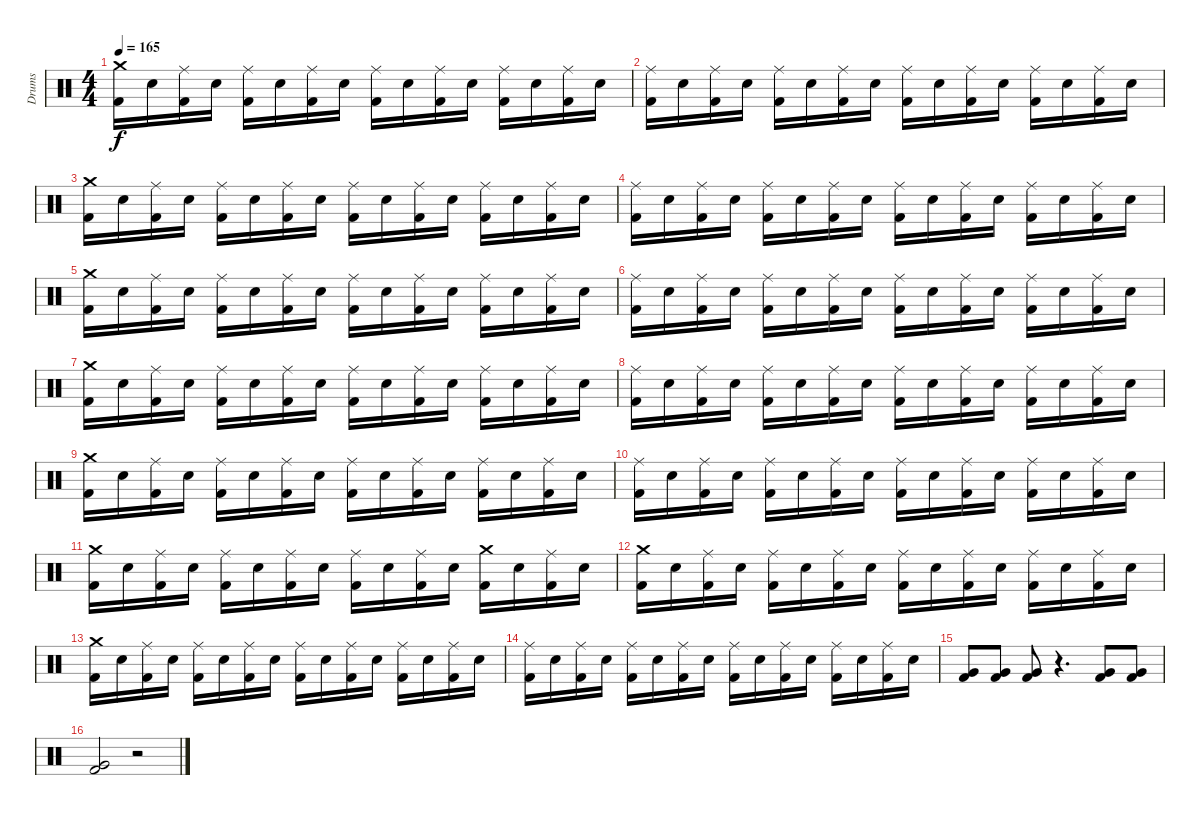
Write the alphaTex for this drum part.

\track ("Drums" "Drums") {instrument percussion}
\staff {score}
\articulation defaults
\ts (4 4)
\tempo 165
\clef neutral
\ks c
("Crash medium (hit)" "Kick (hit) 2").16{dy f} "Snare (hit) 2".16 ("Ride (middle)" "Kick (hit) 2").16 "Snare (hit) 2".16 ("Ride (middle)" "Kick (hit) 2").16 "Snare (hit) 2".16 ("Ride (middle)" "Kick (hit) 2").16 "Snare (hit) 2".16 ("Ride (middle)" "Kick (hit) 2").16 "Snare (hit) 2".16 ("Ride (middle)" "Kick (hit) 2").16 "Snare (hit) 2".16 ("Ride (middle)" "Kick (hit) 2").16 "Snare (hit) 2".16 ("Ride (middle)" "Kick (hit) 2").16 "Snare (hit) 2".16 |
("Ride (middle)" "Kick (hit) 2").16 "Snare (hit) 2".16 ("Ride (middle)" "Kick (hit) 2").16 "Snare (hit) 2".16 ("Ride (middle)" "Kick (hit) 2").16 "Snare (hit) 2".16 ("Ride (middle)" "Kick (hit) 2").16 "Snare (hit) 2".16 ("Ride (middle)" "Kick (hit) 2").16 "Snare (hit) 2".16 ("Ride (middle)" "Kick (hit) 2").16 "Snare (hit) 2".16 ("Ride (middle)" "Kick (hit) 2").16 "Snare (hit) 2".16 ("Ride (middle)" "Kick (hit) 2").16 "Snare (hit) 2".16 |
("Crash medium (hit)" "Kick (hit) 2").16 "Snare (hit) 2".16 ("Ride (middle)" "Kick (hit) 2").16 "Snare (hit) 2".16 ("Ride (middle)" "Kick (hit) 2").16 "Snare (hit) 2".16 ("Ride (middle)" "Kick (hit) 2").16 "Snare (hit) 2".16 ("Ride (middle)" "Kick (hit) 2").16 "Snare (hit) 2".16 ("Ride (middle)" "Kick (hit) 2").16 "Snare (hit) 2".16 ("Ride (middle)" "Kick (hit) 2").16 "Snare (hit) 2".16 ("Ride (middle)" "Kick (hit) 2").16 "Snare (hit) 2".16 |
("Ride (middle)" "Kick (hit) 2").16 "Snare (hit) 2".16 ("Ride (middle)" "Kick (hit) 2").16 "Snare (hit) 2".16 ("Ride (middle)" "Kick (hit) 2").16 "Snare (hit) 2".16 ("Ride (middle)" "Kick (hit) 2").16 "Snare (hit) 2".16 ("Ride (middle)" "Kick (hit) 2").16 "Snare (hit) 2".16 ("Ride (middle)" "Kick (hit) 2").16 "Snare (hit) 2".16 ("Ride (middle)" "Kick (hit) 2").16 "Snare (hit) 2".16 ("Ride (middle)" "Kick (hit) 2").16 "Snare (hit) 2".16 |
("Crash medium (hit)" "Kick (hit) 2").16 "Snare (hit) 2".16 ("Ride (middle)" "Kick (hit) 2").16 "Snare (hit) 2".16 ("Ride (middle)" "Kick (hit) 2").16 "Snare (hit) 2".16 ("Ride (middle)" "Kick (hit) 2").16 "Snare (hit) 2".16 ("Ride (middle)" "Kick (hit) 2").16 "Snare (hit) 2".16 ("Ride (middle)" "Kick (hit) 2").16 "Snare (hit) 2".16 ("Ride (middle)" "Kick (hit) 2").16 "Snare (hit) 2".16 ("Ride (middle)" "Kick (hit) 2").16 "Snare (hit) 2".16 |
("Ride (middle)" "Kick (hit) 2").16 "Snare (hit) 2".16 ("Ride (middle)" "Kick (hit) 2").16 "Snare (hit) 2".16 ("Ride (middle)" "Kick (hit) 2").16 "Snare (hit) 2".16 ("Ride (middle)" "Kick (hit) 2").16 "Snare (hit) 2".16 ("Ride (middle)" "Kick (hit) 2").16 "Snare (hit) 2".16 ("Ride (middle)" "Kick (hit) 2").16 "Snare (hit) 2".16 ("Ride (middle)" "Kick (hit) 2").16 "Snare (hit) 2".16 ("Ride (middle)" "Kick (hit) 2").16 "Snare (hit) 2".16 |
("Crash medium (hit)" "Kick (hit) 2").16 "Snare (hit) 2".16 ("Ride (middle)" "Kick (hit) 2").16 "Snare (hit) 2".16 ("Ride (middle)" "Kick (hit) 2").16 "Snare (hit) 2".16 ("Ride (middle)" "Kick (hit) 2").16 "Snare (hit) 2".16 ("Ride (middle)" "Kick (hit) 2").16 "Snare (hit) 2".16 ("Ride (middle)" "Kick (hit) 2").16 "Snare (hit) 2".16 ("Ride (middle)" "Kick (hit) 2").16 "Snare (hit) 2".16 ("Ride (middle)" "Kick (hit) 2").16 "Snare (hit) 2".16 |
("Ride (middle)" "Kick (hit) 2").16 "Snare (hit) 2".16 ("Ride (middle)" "Kick (hit) 2").16 "Snare (hit) 2".16 ("Ride (middle)" "Kick (hit) 2").16 "Snare (hit) 2".16 ("Ride (middle)" "Kick (hit) 2").16 "Snare (hit) 2".16 ("Ride (middle)" "Kick (hit) 2").16 "Snare (hit) 2".16 ("Ride (middle)" "Kick (hit) 2").16 "Snare (hit) 2".16 ("Ride (middle)" "Kick (hit) 2").16 "Snare (hit) 2".16 ("Ride (middle)" "Kick (hit) 2").16 "Snare (hit) 2".16 |
("Crash medium (hit)" "Kick (hit) 2").16 "Snare (hit) 2".16 ("Ride (middle)" "Kick (hit) 2").16 "Snare (hit) 2".16 ("Ride (middle)" "Kick (hit) 2").16 "Snare (hit) 2".16 ("Ride (middle)" "Kick (hit) 2").16 "Snare (hit) 2".16 ("Ride (middle)" "Kick (hit) 2").16 "Snare (hit) 2".16 ("Ride (middle)" "Kick (hit) 2").16 "Snare (hit) 2".16 ("Ride (middle)" "Kick (hit) 2").16 "Snare (hit) 2".16 ("Ride (middle)" "Kick (hit) 2").16 "Snare (hit) 2".16 |
("Ride (middle)" "Kick (hit) 2").16 "Snare (hit) 2".16 ("Ride (middle)" "Kick (hit) 2").16 "Snare (hit) 2".16 ("Ride (middle)" "Kick (hit) 2").16 "Snare (hit) 2".16 ("Ride (middle)" "Kick (hit) 2").16 "Snare (hit) 2".16 ("Ride (middle)" "Kick (hit) 2").16 "Snare (hit) 2".16 ("Ride (middle)" "Kick (hit) 2").16 "Snare (hit) 2".16 ("Ride (middle)" "Kick (hit) 2").16 "Snare (hit) 2".16 ("Ride (middle)" "Kick (hit) 2").16 "Snare (hit) 2".16 |
("Crash medium (hit)" "Kick (hit) 2").16 "Snare (hit) 2".16 ("Ride (middle)" "Kick (hit) 2").16 "Snare (hit) 2".16 ("Ride (middle)" "Kick (hit) 2").16 "Snare (hit) 2".16 ("Ride (middle)" "Kick (hit) 2").16 "Snare (hit) 2".16 ("Ride (middle)" "Kick (hit) 2").16 "Snare (hit) 2".16 ("Ride (middle)" "Kick (hit) 2").16 "Snare (hit) 2".16 ("Crash medium (hit)" "Kick (hit) 2").16 "Snare (hit) 2".16 ("Ride (middle)" "Kick (hit) 2").16 "Snare (hit) 2".16 |
("Crash medium (hit)" "Kick (hit) 2").16 "Snare (hit) 2".16 ("Ride (middle)" "Kick (hit) 2").16 "Snare (hit) 2".16 ("Ride (middle)" "Kick (hit) 2").16 "Snare (hit) 2".16 ("Ride (middle)" "Kick (hit) 2").16 "Snare (hit) 2".16 ("Ride (middle)" "Kick (hit) 2").16 "Snare (hit) 2".16 ("Ride (middle)" "Kick (hit) 2").16 "Snare (hit) 2".16 ("Ride (middle)" "Kick (hit) 2").16 "Snare (hit) 2".16 ("Ride (middle)" "Kick (hit) 2").16 "Snare (hit) 2".16 |
("Crash medium (hit)" "Kick (hit) 2").16 "Snare (hit) 2".16 ("Ride (middle)" "Kick (hit) 2").16 "Snare (hit) 2".16 ("Ride (middle)" "Kick (hit) 2").16 "Snare (hit) 2".16 ("Ride (middle)" "Kick (hit) 2").16 "Snare (hit) 2".16 ("Ride (middle)" "Kick (hit) 2").16 "Snare (hit) 2".16 ("Ride (middle)" "Kick (hit) 2").16 "Snare (hit) 2".16 ("Ride (middle)" "Kick (hit) 2").16 "Snare (hit) 2".16 ("Ride (middle)" "Kick (hit) 2").16 "Snare (hit) 2".16 |
("Ride (middle)" "Kick (hit) 2").16 "Snare (hit) 2".16 ("Ride (middle)" "Kick (hit) 2").16 "Snare (hit) 2".16 ("Ride (middle)" "Kick (hit) 2").16 "Snare (hit) 2".16 ("Ride (middle)" "Kick (hit) 2").16 "Snare (hit) 2".16 ("Ride (middle)" "Kick (hit) 2").16 "Snare (hit) 2".16 ("Ride (middle)" "Kick (hit) 2").16 "Snare (hit) 2".16 ("Ride (middle)" "Kick (hit) 2").16 "Snare (hit) 2".16 ("Ride (middle)" "Kick (hit) 2").16 "Snare (hit) 2".16 |
("Very Low Tom (hit)" "Kick (hit) 2").8 ("Very Low Tom (hit)" "Kick (hit) 2").8 ("Very Low Tom (hit)" "Kick (hit) 2").8 r.4{d} ("Very Low Tom (hit)" "Kick (hit) 2").8 ("Very Low Tom (hit)" "Kick (hit) 2").8 |
("Very Low Tom (hit)" "Kick (hit) 2").2 r.2
